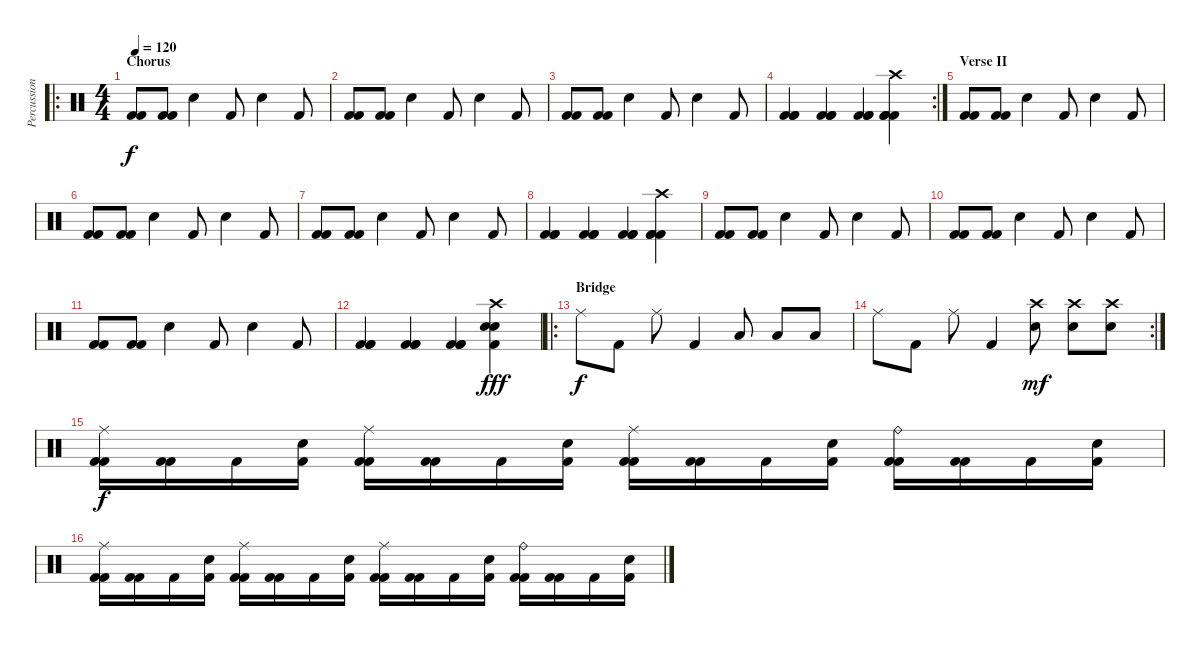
\track ("Percussions" "Percussion") {instrument percussion}
\staff {score}
\articulation defaults
\ro
\ts (4 4)
\section ("" "Chorus")
\tempo 120
\clef neutral
\ks c
("Kick (hit) 2" "Kick (hit) 2").8{dy f} ("Kick (hit) 2" "Kick (hit) 2").8 "Electric Snare (hit)".4 "Kick (hit) 2".8 "Electric Snare (hit)".4 "Kick (hit) 2".8 |
("Kick (hit) 2" "Kick (hit) 2").8 ("Kick (hit) 2" "Kick (hit) 2").8 "Electric Snare (hit)".4 "Kick (hit) 2".8 "Electric Snare (hit)".4 "Kick (hit) 2".8 |
("Kick (hit) 2" "Kick (hit) 2").8 ("Kick (hit) 2" "Kick (hit) 2").8 "Electric Snare (hit)".4 "Kick (hit) 2".8 "Electric Snare (hit)".4 "Kick (hit) 2".8 |
\rc 2
("Kick (hit) 2" "Kick (hit) 2" "Kick (hit) 2").4 ("Kick (hit) 2" "Kick (hit) 2" "Kick (hit) 2").4 ("Kick (hit) 2" "Kick (hit) 2" "Kick (hit) 2").4 ("Crash high (hit)" "Kick (hit) 2" "Kick (hit) 2" "Kick (hit) 2").4 |
\section ("" "Verse II")
("Kick (hit) 2" "Kick (hit) 2").8 ("Kick (hit) 2" "Kick (hit) 2").8 "Electric Snare (hit)".4 "Kick (hit) 2".8 "Electric Snare (hit)".4 "Kick (hit) 2".8 |
("Kick (hit) 2" "Kick (hit) 2").8 ("Kick (hit) 2" "Kick (hit) 2").8 "Electric Snare (hit)".4 "Kick (hit) 2".8 "Electric Snare (hit)".4 "Kick (hit) 2".8 |
("Kick (hit) 2" "Kick (hit) 2").8 ("Kick (hit) 2" "Kick (hit) 2").8 "Electric Snare (hit)".4 "Kick (hit) 2".8 "Electric Snare (hit)".4 "Kick (hit) 2".8 |
("Kick (hit) 2" "Kick (hit) 2" "Kick (hit) 2").4 ("Kick (hit) 2" "Kick (hit) 2" "Kick (hit) 2").4 ("Kick (hit) 2" "Kick (hit) 2" "Kick (hit) 2").4 ("Crash high (hit)" "Kick (hit) 2" "Kick (hit) 2" "Kick (hit) 2").4 |
("Kick (hit) 2" "Kick (hit) 2").8 ("Kick (hit) 2" "Kick (hit) 2").8 "Electric Snare (hit)".4 "Kick (hit) 2".8 "Electric Snare (hit)".4 "Kick (hit) 2".8 |
("Kick (hit) 2" "Kick (hit) 2").8 ("Kick (hit) 2" "Kick (hit) 2").8 "Electric Snare (hit)".4 "Kick (hit) 2".8 "Electric Snare (hit)".4 "Kick (hit) 2".8 |
("Kick (hit) 2" "Kick (hit) 2").8 ("Kick (hit) 2" "Kick (hit) 2").8 "Electric Snare (hit)".4 "Kick (hit) 2".8 "Electric Snare (hit)".4 "Kick (hit) 2".8 |
("Kick (hit) 2" "Kick (hit) 2" "Kick (hit) 2").4 ("Kick (hit) 2" "Kick (hit) 2" "Kick (hit) 2").4 ("Kick (hit) 2" "Kick (hit) 2" "Kick (hit) 2").4 ("Crash high (hit)" "Electric Snare (hit)" "Electric Snare (hit)" "Kick (hit) 2").4{bd 240 dy fff} |
\ro
\section ("" "Bridge")
"Ride (middle)".8{dy f} "Kick (hit) 2".8 "Ride (middle)".8 "Kick (hit) 2".4 "Low Floor Tom (hit)".8 "Low Floor Tom (hit)".8 "Low Floor Tom (hit)".8 |
\rc 2 "Ride (middle)".8 "Kick (hit) 2".8 "Ride (middle)".8 "Kick (hit) 2".4
("Crash high (hit)" "Electric Snare (hit)").8{dy mf} ("Crash high (hit)" "Electric Snare (hit)").8 ("Crash high (hit)" "Electric Snare (hit)").8 |
("Kick (hit) 2" "Kick (hit) 2" "Ride (middle)").16{dy f} ("Kick (hit) 2" "Kick (hit) 2").16 "Kick (hit) 2".16 ("Electric Snare (hit)" "Kick (hit) 2").16 ("Kick (hit) 2" "Kick (hit) 2" "Ride (middle)").16 ("Kick (hit) 2" "Kick (hit) 2").16 "Kick (hit) 2".16 ("Electric Snare (hit)" "Kick (hit) 2").16 ("Kick (hit) 2" "Kick (hit) 2" "Ride (middle)").16 ("Kick (hit) 2" "Kick (hit) 2").16 "Kick (hit) 2".16 ("Electric Snare (hit)" "Kick (hit) 2").16 ("Kick (hit) 2" "Kick (hit) 2" "Ride (bell)").16 ("Kick (hit) 2" "Kick (hit) 2").16 "Kick (hit) 2".16 ("Electric Snare (hit)" "Kick (hit) 2").16 |
("Kick (hit) 2" "Kick (hit) 2" "Ride (middle)").16 ("Kick (hit) 2" "Kick (hit) 2").16{volume 11} "Kick (hit) 2".16 ("Electric Snare (hit)" "Kick (hit) 2").16 ("Kick (hit) 2" "Kick (hit) 2" "Ride (middle)").16 ("Kick (hit) 2" "Kick (hit) 2").16 "Kick (hit) 2".16 ("Electric Snare (hit)" "Kick (hit) 2").16 ("Kick (hit) 2" "Kick (hit) 2" "Ride (middle)").16 ("Kick (hit) 2" "Kick (hit) 2").16 "Kick (hit) 2".16 ("Electric Snare (hit)" "Kick (hit) 2").16 ("Kick (hit) 2" "Kick (hit) 2" "Ride (bell)").16 ("Kick (hit) 2" "Kick (hit) 2").16 "Kick (hit) 2".16 ("Electric Snare (hit)" "Kick (hit) 2").16
